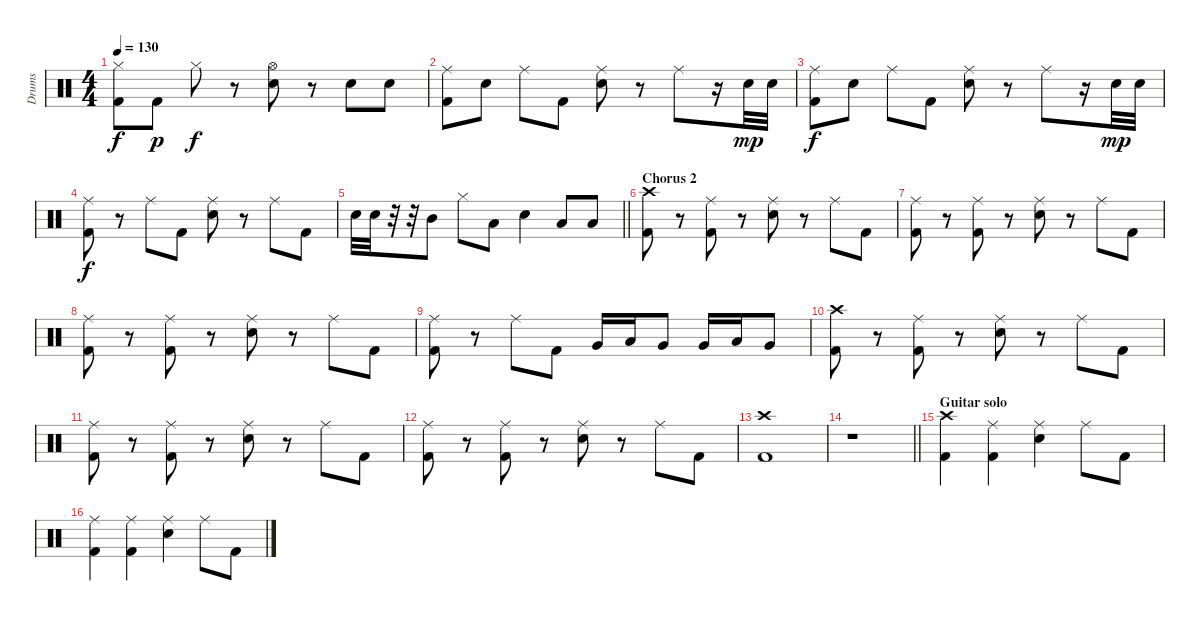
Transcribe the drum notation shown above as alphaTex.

\track ("Drums" "Drums") {instrument percussion}
\staff {score}
\articulation defaults
\ts (4 4)
\tempo 130
\clef neutral
\ks c
("Hi-Hat (closed)" "Kick (hit) 2").8{dy f} "Kick (hit) 2".8{dy p} "Hi-Hat (closed)".8{dy f} r.8 ("Hi-Hat (open)" "Snare (hit) 2").8 r.8 "Snare (hit) 2".8 "Snare (hit) 2".8 |
("Ride (middle)" "Kick (hit) 2").8 "Snare (hit) 2".8 "Ride (middle)".8 "Kick (hit) 2".8 ("Ride (middle)" "Snare (hit) 2").8 r.8 "Ride (middle)".8 r.16 "Snare (hit) 2".32{dy mp} "Snare (hit) 2".32 |
("Ride (middle)" "Kick (hit) 2").8{dy f} "Snare (hit) 2".8 "Ride (middle)".8 "Kick (hit) 2".8 ("Ride (middle)" "Snare (hit) 2").8 r.8 "Ride (middle)".8 r.16 "Snare (hit) 2".32{dy mp} "Snare (hit) 2".32 |
("Ride (middle)" "Kick (hit) 2").8{dy f} r.8 "Ride (middle)".8 "Kick (hit) 2".8 ("Ride (middle)" "Snare (hit) 2").8 r.8 "Ride (middle)".8 "Kick (hit) 2".8 |
\barLineRight lightlight "Snare (hit) 2".32{volume 16} "Snare (hit) 2".32
r.32 r.32 "Mid Tom (hit)".8 "Hi-Hat (closed)".8 "Low Tom (hit)".8 "Snare (hit) 2".4 "Low Floor Tom (hit)".8 "Low Floor Tom (hit)".8 |
\section ("" "Chorus 2")
("Crash high (hit)" "Kick (hit) 2").8 r.8 ("Ride (middle)" "Kick (hit) 2").8 r.8 ("Ride (middle)" "Snare (hit) 2").8 r.8 "Ride (middle)".8 "Kick (hit) 2".8 |
("Ride (middle)" "Kick (hit) 2").8 r.8 ("Ride (middle)" "Kick (hit) 2").8 r.8 ("Ride (middle)" "Snare (hit) 2").8 r.8 "Ride (middle)".8 "Kick (hit) 2".8 |
("Ride (middle)" "Kick (hit) 2").8 r.8 ("Ride (middle)" "Kick (hit) 2").8 r.8 ("Ride (middle)" "Snare (hit) 2").8 r.8 "Ride (middle)".8 "Kick (hit) 2".8 |
("Ride (middle)" "Kick (hit) 2").8 r.8 "Ride (middle)".8 "Kick (hit) 2".8 "Very Low Tom (hit)".16 "Low Floor Tom (hit)".16 "Very Low Tom (hit)".8 "Very Low Tom (hit)".16 "Low Floor Tom (hit)".16 "Very Low Tom (hit)".8 |
("Crash high (hit)" "Kick (hit) 2").8 r.8 ("Ride (middle)" "Kick (hit) 2").8 r.8 ("Ride (middle)" "Snare (hit) 2").8 r.8 "Ride (middle)".8 "Kick (hit) 2".8 |
("Ride (middle)" "Kick (hit) 2").8 r.8 ("Ride (middle)" "Kick (hit) 2").8 r.8 ("Ride (middle)" "Snare (hit) 2").8 r.8 "Ride (middle)".8 "Kick (hit) 2".8 |
("Ride (middle)" "Kick (hit) 2").8 r.8 ("Ride (middle)" "Kick (hit) 2").8 r.8 ("Ride (middle)" "Snare (hit) 2").8 r.8 "Ride (middle)".8 "Kick (hit) 2".8 |
("Crash high (hit)" "Kick (hit) 2").1 |
\barLineRight lightlight
r.1 |
\section ("" "Guitar solo")
("Crash high (hit)" "Kick (hit) 2").4 ("Ride (middle)" "Kick (hit) 2").4 ("Ride (middle)" "Snare (hit) 2").4 "Ride (middle)".8 "Kick (hit) 2".8 |
("Ride (middle)" "Kick (hit) 2").4 ("Ride (middle)" "Kick (hit) 2").4 ("Ride (middle)" "Snare (hit) 2").4 "Ride (middle)".8 "Kick (hit) 2".8
